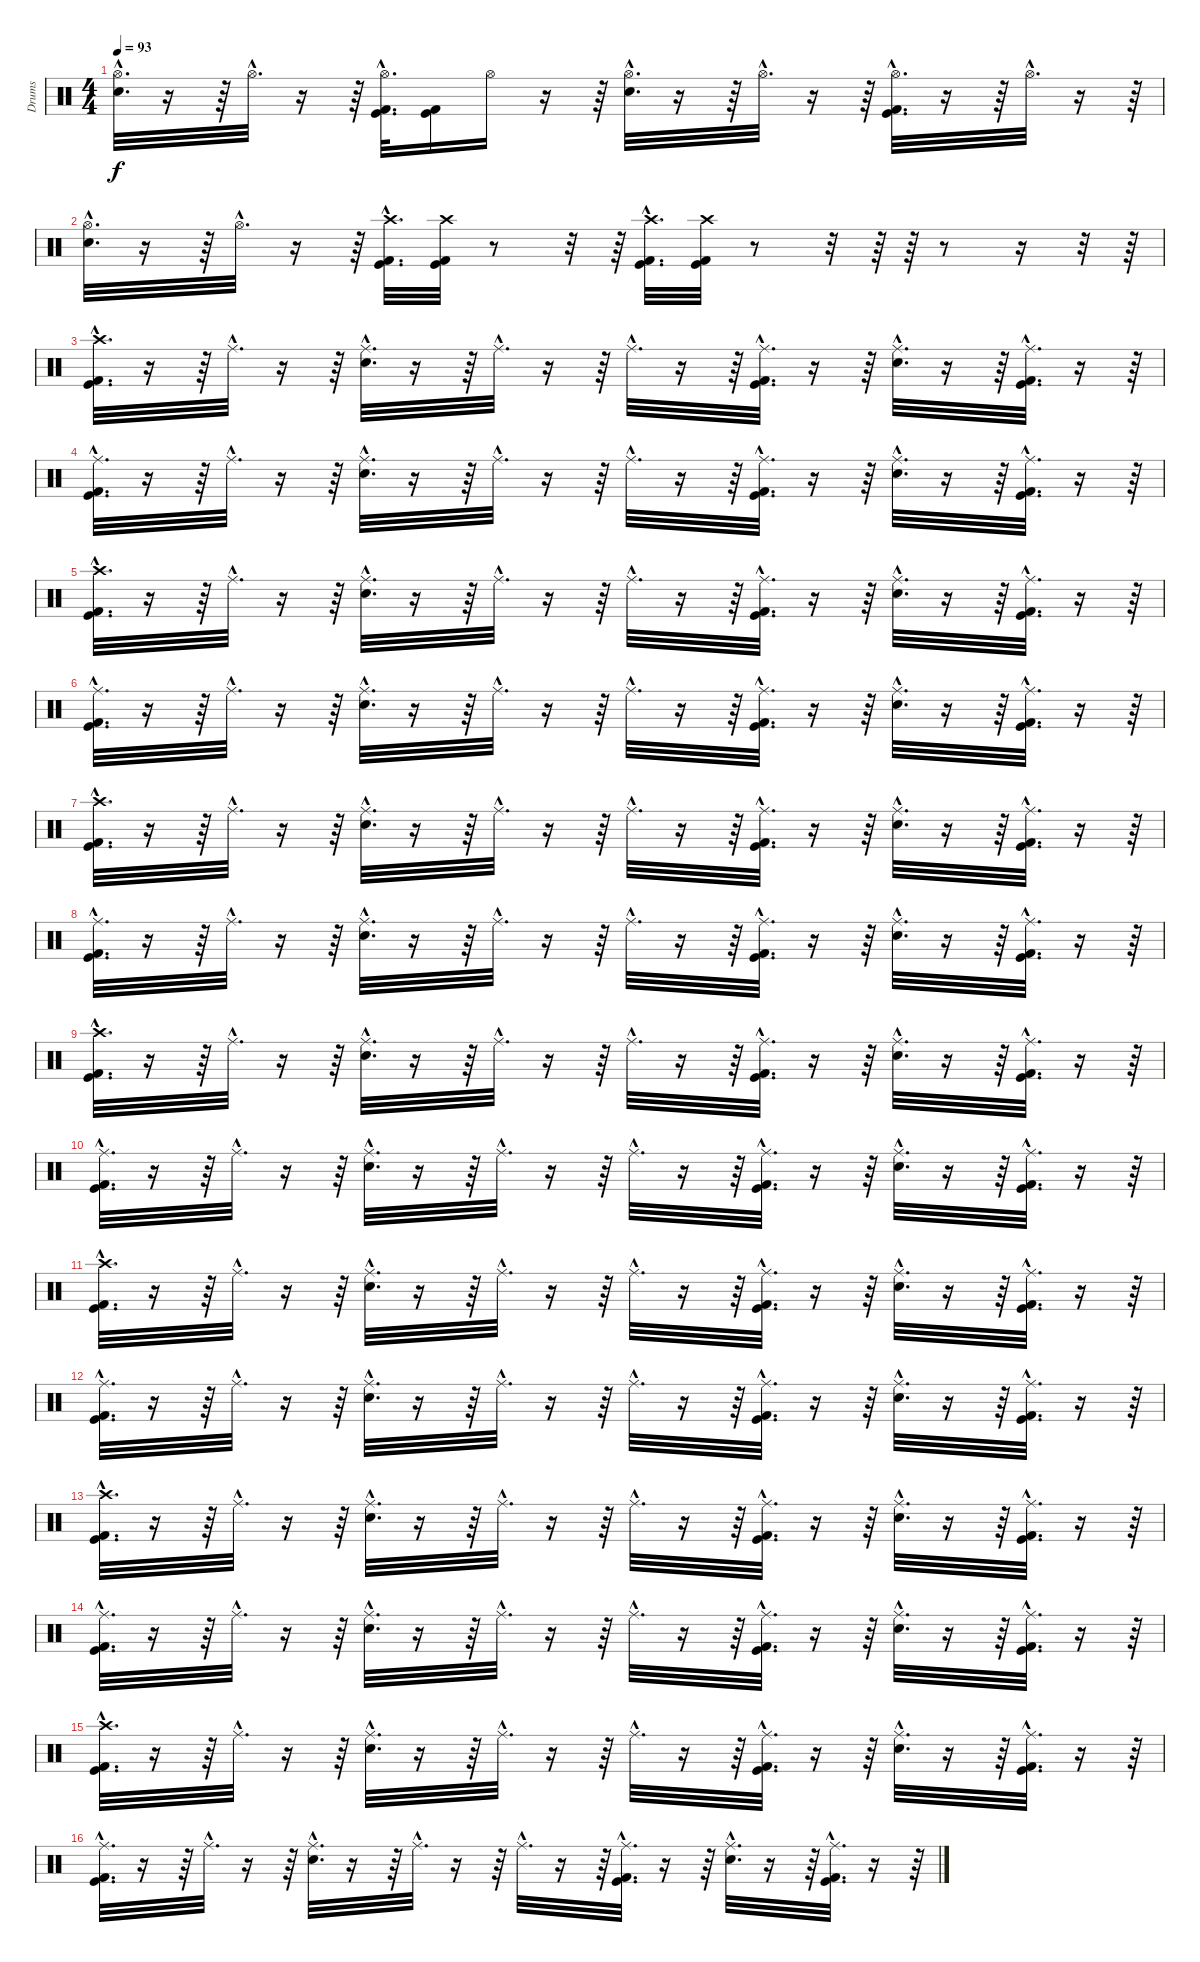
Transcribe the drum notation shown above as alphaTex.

\track ("Drums" "Drums") {instrument percussion}
\staff {score}
\articulation defaults
\ts (4 4)
\tempo 93
\clef neutral
\ks c
("Snare (hit) 2"{hac} "Hi-Hat (open)"{hac}).32{d dy f} r.16 r.64 "Hi-Hat (open)"{hac}.32{d} r.16 r.64 ("Kick (hit)"{hac} "Kick (hit) 2"{hac} "Hi-Hat (open)"{hac}).32{d} ("Kick (hit)" "Kick (hit) 2").16 "Hi-Hat (open)".16 r.16 r.64 ("Snare (hit) 2"{hac} "Hi-Hat (open)"{hac}).32{d} r.16 r.64 "Hi-Hat (open)"{hac}.32{d} r.16 r.64 ("Kick (hit)"{hac} "Kick (hit) 2"{hac} "Hi-Hat (open)"{hac}).32{d} r.16 r.64 "Hi-Hat (open)"{hac}.32{d} r.16 r.64 |
("Hi-Hat (open)"{hac} "Snare (hit) 2"{hac}).32{d} r.16 r.64 "Hi-Hat (open)"{hac}.32{d} r.16 r.64 ("Kick (hit)"{hac} "Crash high (hit)"{hac} "Kick (hit) 2"{hac}).32{d} ("Kick (hit)" "Crash high (hit)" "Kick (hit) 2").32 r.8 r.32 r.64 ("Kick (hit)"{hac} "Crash high (hit)"{hac} "Kick (hit) 2"{hac}).32{d} ("Kick (hit)" "Crash high (hit)" "Kick (hit) 2").32 r.8 r.32 r.64 r.64 r.8 r.16 r.32 r.64 |
("Kick (hit)"{hac} "Kick (hit) 2"{hac} "Crash high (hit)"{hac}).32{d} r.16 r.64 "Ride (middle)"{hac}.32{d} r.16 r.64 ("Ride (middle)"{hac} "Snare (hit) 2"{hac}).32{d} r.16 r.64 "Ride (middle)"{hac}.32{d} r.16 r.64 "Ride (middle)"{hac}.32{d} r.16 r.64 ("Kick (hit)"{hac} "Kick (hit) 2"{hac} "Ride (middle)"{hac}).32{d} r.16 r.64 ("Snare (hit) 2"{hac} "Ride (middle)"{hac}).32{d} r.16 r.64 ("Kick (hit)"{hac} "Kick (hit) 2"{hac} "Ride (middle)"{hac}).32{d} r.16 r.64 |
("Kick (hit)"{hac} "Kick (hit) 2"{hac} "Ride (middle)"{hac}).32{d} r.16 r.64 "Ride (middle)"{hac}.32{d} r.16 r.64 ("Snare (hit) 2"{hac} "Ride (middle)"{hac}).32{d} r.16 r.64 "Ride (middle)"{hac}.32{d} r.16 r.64 "Ride (middle)"{hac}.32{d} r.16 r.64 ("Kick (hit)"{hac} "Kick (hit) 2"{hac} "Ride (middle)"{hac}).32{d} r.16 r.64 ("Snare (hit) 2"{hac} "Ride (middle)"{hac}).32{d} r.16 r.64 ("Kick (hit)"{hac} "Kick (hit) 2"{hac} "Ride (middle)"{hac}).32{d} r.16 r.64 |
("Kick (hit)"{hac} "Crash high (hit)"{hac} "Kick (hit) 2"{hac}).32{d} r.16 r.64 "Ride (middle)"{hac}.32{d} r.16 r.64 ("Snare (hit) 2"{hac} "Ride (middle)"{hac}).32{d} r.16 r.64 "Ride (middle)"{hac}.32{d} r.16 r.64 "Ride (middle)"{hac}.32{d} r.16 r.64 ("Kick (hit)"{hac} "Kick (hit) 2"{hac} "Ride (middle)"{hac}).32{d} r.16 r.64 ("Snare (hit) 2"{hac} "Ride (middle)"{hac}).32{d} r.16 r.64 ("Kick (hit)"{hac} "Ride (middle)"{hac} "Kick (hit) 2"{hac}).32{d} r.16 r.64 |
("Kick (hit)"{hac} "Ride (middle)"{hac} "Kick (hit) 2"{hac}).32{d} r.16 r.64 "Ride (middle)"{hac}.32{d} r.16 r.64 ("Ride (middle)"{hac} "Snare (hit) 2"{hac}).32{d} r.16 r.64 "Ride (middle)"{hac}.32{d} r.16 r.64 "Ride (middle)"{hac}.32{d} r.16 r.64 ("Kick (hit)"{hac} "Ride (middle)"{hac} "Kick (hit) 2"{hac}).32{d} r.16 r.64 ("Ride (middle)"{hac} "Snare (hit) 2"{hac}).32{d} r.16 r.64 ("Kick (hit)"{hac} "Ride (middle)"{hac} "Kick (hit) 2"{hac}).32{d} r.16 r.64 |
("Kick (hit)"{hac} "Crash high (hit)"{hac} "Kick (hit) 2"{hac}).32{d} r.16 r.64 "Ride (middle)"{hac}.32{d} r.16 r.64 ("Snare (hit) 2"{hac} "Ride (middle)"{hac}).32{d} r.16 r.64 "Ride (middle)"{hac}.32{d} r.16 r.64 "Ride (middle)"{hac}.32{d} r.16 r.64 ("Kick (hit)"{hac} "Ride (middle)"{hac} "Kick (hit) 2"{hac}).32{d} r.16 r.64 ("Ride (middle)"{hac} "Snare (hit) 2"{hac}).32{d} r.16 r.64 ("Kick (hit)"{hac} "Ride (middle)"{hac} "Kick (hit) 2"{hac}).32{d} r.16 r.64 |
("Kick (hit)"{hac} "Ride (middle)"{hac} "Kick (hit) 2"{hac}).32{d} r.16 r.64 "Ride (middle)"{hac}.32{d} r.16 r.64 ("Ride (middle)"{hac} "Snare (hit) 2"{hac}).32{d} r.16 r.64 "Ride (middle)"{hac}.32{d} r.16 r.64 "Ride (middle)"{hac}.32{d} r.16 r.64 ("Kick (hit)"{hac} "Ride (middle)"{hac} "Kick (hit) 2"{hac}).32{d} r.16 r.64 ("Ride (middle)"{hac} "Snare (hit) 2"{hac}).32{d} r.16 r.64 ("Kick (hit)"{hac} "Ride (middle)"{hac} "Kick (hit) 2"{hac}).32{d} r.16 r.64 |
("Kick (hit)"{hac} "Crash high (hit)"{hac} "Kick (hit) 2"{hac}).32{d} r.16 r.64 "Ride (middle)"{hac}.32{d} r.16 r.64 ("Snare (hit) 2"{hac} "Ride (middle)"{hac}).32{d} r.16 r.64 "Ride (middle)"{hac}.32{d} r.16 r.64 "Ride (middle)"{hac}.32{d} r.16 r.64 ("Kick (hit)"{hac} "Ride (middle)"{hac} "Kick (hit) 2"{hac}).32{d} r.16 r.64 ("Ride (middle)"{hac} "Snare (hit) 2"{hac}).32{d} r.16 r.64 ("Kick (hit)"{hac} "Ride (middle)"{hac} "Kick (hit) 2"{hac}).32{d} r.16 r.64 |
("Kick (hit)"{hac} "Ride (middle)"{hac} "Kick (hit) 2"{hac}).32{d} r.16 r.64 "Ride (middle)"{hac}.32{d} r.16 r.64 ("Ride (middle)"{hac} "Snare (hit) 2"{hac}).32{d} r.16 r.64 "Ride (middle)"{hac}.32{d} r.16 r.64 "Ride (middle)"{hac}.32{d} r.16 r.64 ("Kick (hit)"{hac} "Ride (middle)"{hac} "Kick (hit) 2"{hac}).32{d} r.16 r.64 ("Ride (middle)"{hac} "Snare (hit) 2"{hac}).32{d} r.16 r.64 ("Kick (hit)"{hac} "Ride (middle)"{hac} "Kick (hit) 2"{hac}).32{d} r.16 r.64 |
("Kick (hit)"{hac} "Crash high (hit)"{hac} "Kick (hit) 2"{hac}).32{d} r.16 r.64 "Ride (middle)"{hac}.32{d} r.16 r.64 ("Ride (middle)"{hac} "Snare (hit) 2"{hac}).32{d} r.16 r.64 "Ride (middle)"{hac}.32{d} r.16 r.64 "Ride (middle)"{hac}.32{d} r.16 r.64 ("Kick (hit)"{hac} "Kick (hit) 2"{hac} "Ride (middle)"{hac}).32{d} r.16 r.64 ("Snare (hit) 2"{hac} "Ride (middle)"{hac}).32{d} r.16 r.64 ("Kick (hit)"{hac} "Kick (hit) 2"{hac} "Ride (middle)"{hac}).32{d} r.16 r.64 |
("Kick (hit)"{hac} "Kick (hit) 2"{hac} "Ride (middle)"{hac}).32{d} r.16 r.64 "Ride (middle)"{hac}.32{d} r.16 r.64 ("Snare (hit) 2"{hac} "Ride (middle)"{hac}).32{d} r.16 r.64 "Ride (middle)"{hac}.32{d} r.16 r.64 "Ride (middle)"{hac}.32{d} r.16 r.64 ("Kick (hit)"{hac} "Kick (hit) 2"{hac} "Ride (middle)"{hac}).32{d} r.16 r.64 ("Snare (hit) 2"{hac} "Ride (middle)"{hac}).32{d} r.16 r.64 ("Kick (hit)"{hac} "Kick (hit) 2"{hac} "Ride (middle)"{hac}).32{d} r.16 r.64 |
("Kick (hit)"{hac} "Crash high (hit)"{hac} "Kick (hit) 2"{hac}).32{d} r.16 r.64 "Ride (middle)"{hac}.32{d} r.16 r.64 ("Snare (hit) 2"{hac} "Ride (middle)"{hac}).32{d} r.16 r.64 "Ride (middle)"{hac}.32{d} r.16 r.64 "Ride (middle)"{hac}.32{d} r.16 r.64 ("Kick (hit)"{hac} "Kick (hit) 2"{hac} "Ride (middle)"{hac}).32{d} r.16 r.64 ("Snare (hit) 2"{hac} "Ride (middle)"{hac}).32{d} r.16 r.64 ("Kick (hit)"{hac} "Ride (middle)"{hac} "Kick (hit) 2"{hac}).32{d} r.16 r.64 |
("Kick (hit)"{hac} "Ride (middle)"{hac} "Kick (hit) 2"{hac}).32{d} r.16 r.64 "Ride (middle)"{hac}.32{d} r.16 r.64 ("Ride (middle)"{hac} "Snare (hit) 2"{hac}).32{d} r.16 r.64 "Ride (middle)"{hac}.32{d} r.16 r.64 "Ride (middle)"{hac}.32{d} r.16 r.64 ("Kick (hit)"{hac} "Ride (middle)"{hac} "Kick (hit) 2"{hac}).32{d} r.16 r.64 ("Ride (middle)"{hac} "Snare (hit) 2"{hac}).32{d} r.16 r.64 ("Kick (hit)"{hac} "Ride (middle)"{hac} "Kick (hit) 2"{hac}).32{d} r.16 r.64 |
("Kick (hit)"{hac} "Crash high (hit)"{hac} "Kick (hit) 2"{hac}).32{d} r.16 r.64 "Ride (middle)"{hac}.32{d} r.16 r.64 ("Snare (hit) 2"{hac} "Ride (middle)"{hac}).32{d} r.16 r.64 "Ride (middle)"{hac}.32{d} r.16 r.64 "Ride (middle)"{hac}.32{d} r.16 r.64 ("Kick (hit)"{hac} "Ride (middle)"{hac} "Kick (hit) 2"{hac}).32{d} r.16 r.64 ("Ride (middle)"{hac} "Snare (hit) 2"{hac}).32{d} r.16 r.64 ("Kick (hit)"{hac} "Ride (middle)"{hac} "Kick (hit) 2"{hac}).32{d} r.16 r.64 |
("Kick (hit)"{hac} "Ride (middle)"{hac} "Kick (hit) 2"{hac}).32{d} r.16 r.64 "Ride (middle)"{hac}.32{d} r.16 r.64 ("Ride (middle)"{hac} "Snare (hit) 2"{hac}).32{d} r.16 r.64 "Ride (middle)"{hac}.32{d} r.16 r.64 "Ride (middle)"{hac}.32{d} r.16 r.64 ("Kick (hit)"{hac} "Ride (middle)"{hac} "Kick (hit) 2"{hac}).32{d} r.16 r.64 ("Ride (middle)"{hac} "Snare (hit) 2"{hac}).32{d} r.16 r.64 ("Kick (hit)"{hac} "Ride (middle)"{hac} "Kick (hit) 2"{hac}).32{d} r.16 r.64
